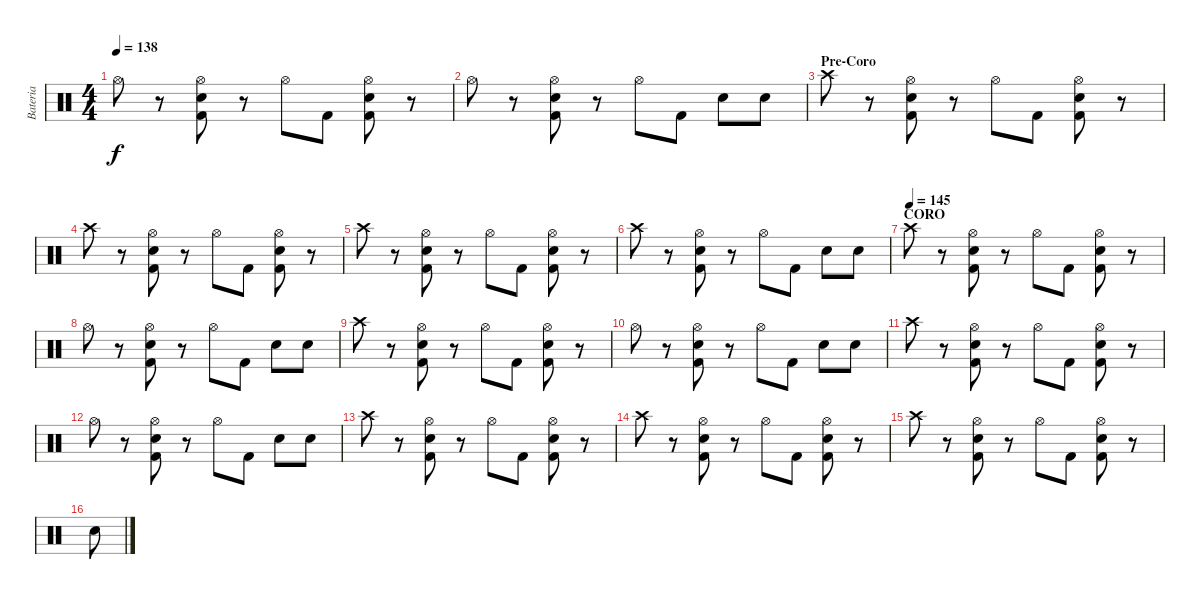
\track ("Bateria" "Bateria") {instrument percussion}
\staff {score}
\articulation defaults
\ts (4 4)
\tempo 138
\clef neutral
\ks c "Hi-Hat (open)".8{dy f}
r.8 ("Hi-Hat (open)" "Electric Snare (hit)" "Kick (hit) 2").8 r.8 "Hi-Hat (open)".8 "Kick (hit) 2".8 ("Hi-Hat (open)" "Electric Snare (hit)" "Kick (hit) 2").8 r.8 |
"Hi-Hat (open)".8 r.8 ("Hi-Hat (open)" "Electric Snare (hit)" "Kick (hit) 2").8 r.8 "Hi-Hat (open)".8 "Kick (hit) 2".8 "Electric Snare (hit)".8 "Electric Snare (hit)".8 |
\section ("" "Pre-Coro")
"Crash high (hit)".8 r.8 ("Hi-Hat (open)" "Electric Snare (hit)" "Kick (hit) 2").8 r.8 "Hi-Hat (open)".8 "Kick (hit) 2".8 ("Hi-Hat (open)" "Electric Snare (hit)" "Kick (hit) 2").8 r.8 |
"Crash high (hit)".8 r.8 ("Hi-Hat (open)" "Electric Snare (hit)" "Kick (hit) 2").8 r.8 "Hi-Hat (open)".8 "Kick (hit) 2".8 ("Hi-Hat (open)" "Electric Snare (hit)" "Kick (hit) 2").8 r.8 |
"Crash high (hit)".8 r.8 ("Hi-Hat (open)" "Electric Snare (hit)" "Kick (hit) 2").8 r.8 "Hi-Hat (open)".8 "Kick (hit) 2".8 ("Hi-Hat (open)" "Electric Snare (hit)" "Kick (hit) 2").8 r.8 |
"Crash high (hit)".8 r.8 ("Hi-Hat (open)" "Electric Snare (hit)" "Kick (hit) 2").8 r.8 "Hi-Hat (open)".8 "Kick (hit) 2".8 "Electric Snare (hit)".8 "Electric Snare (hit)".8 |
\section ("" "CORO")
\tempo (145)
"Crash high (hit)".8 r.8 ("Hi-Hat (open)" "Electric Snare (hit)" "Kick (hit) 2").8 r.8 "Hi-Hat (open)".8 "Kick (hit) 2".8 ("Hi-Hat (open)" "Electric Snare (hit)" "Kick (hit) 2").8 r.8 |
"Hi-Hat (open)".8 r.8 ("Hi-Hat (open)" "Electric Snare (hit)" "Kick (hit) 2").8 r.8 "Hi-Hat (open)".8 "Kick (hit) 2".8 "Electric Snare (hit)".8 "Electric Snare (hit)".8 |
"Crash high (hit)".8 r.8 ("Hi-Hat (open)" "Electric Snare (hit)" "Kick (hit) 2").8 r.8 "Hi-Hat (open)".8 "Kick (hit) 2".8 ("Hi-Hat (open)" "Electric Snare (hit)" "Kick (hit) 2").8 r.8 |
"Hi-Hat (open)".8 r.8 ("Hi-Hat (open)" "Electric Snare (hit)" "Kick (hit) 2").8 r.8 "Hi-Hat (open)".8 "Kick (hit) 2".8 "Electric Snare (hit)".8 "Electric Snare (hit)".8 |
"Crash high (hit)".8 r.8 ("Hi-Hat (open)" "Electric Snare (hit)" "Kick (hit) 2").8 r.8 "Hi-Hat (open)".8 "Kick (hit) 2".8 ("Hi-Hat (open)" "Electric Snare (hit)" "Kick (hit) 2").8 r.8 |
"Hi-Hat (open)".8 r.8 ("Hi-Hat (open)" "Electric Snare (hit)" "Kick (hit) 2").8 r.8 "Hi-Hat (open)".8 "Kick (hit) 2".8 "Electric Snare (hit)".8 "Electric Snare (hit)".8 |
"Crash high (hit)".8 r.8 ("Hi-Hat (open)" "Electric Snare (hit)" "Kick (hit) 2").8 r.8 "Hi-Hat (open)".8 "Kick (hit) 2".8 ("Hi-Hat (open)" "Electric Snare (hit)" "Kick (hit) 2").8 r.8 |
"Crash high (hit)".8 r.8 ("Hi-Hat (open)" "Electric Snare (hit)" "Kick (hit) 2").8 r.8 "Hi-Hat (open)".8 "Kick (hit) 2".8 ("Hi-Hat (open)" "Electric Snare (hit)" "Kick (hit) 2").8 r.8 |
"Crash high (hit)".8 r.8 ("Hi-Hat (open)" "Electric Snare (hit)" "Kick (hit) 2").8 r.8 "Hi-Hat (open)".8 "Kick (hit) 2".8 ("Hi-Hat (open)" "Electric Snare (hit)" "Kick (hit) 2").8 r.8 |
"Electric Snare (hit)".8
